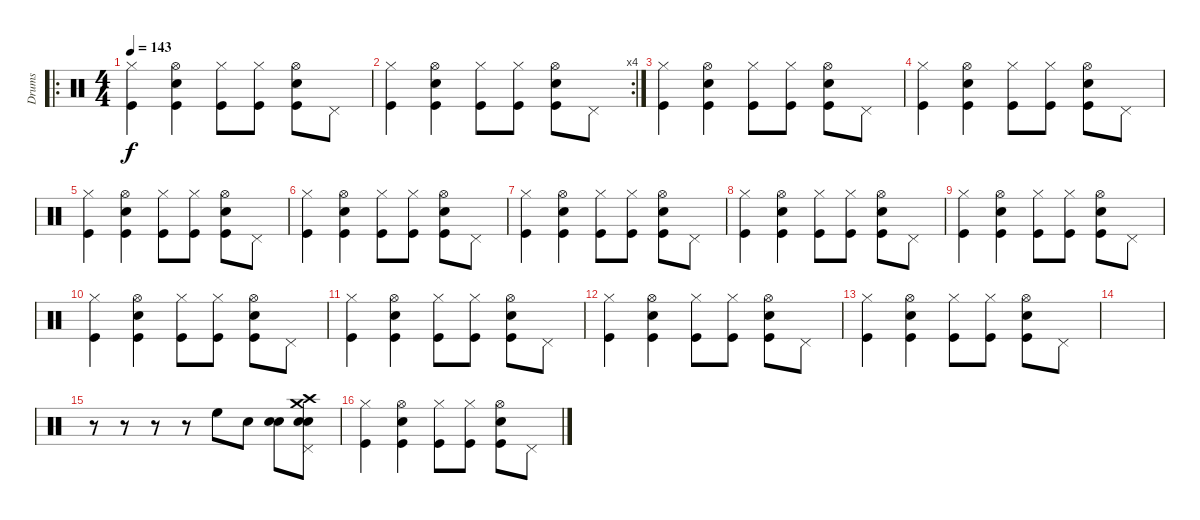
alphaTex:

\track ("Drums" "Drums") {instrument percussion}
\staff {score}
\articulation defaults
\ro
\ts (4 4)
\tempo 143
\clef neutral
\ks c
("Hi-Hat (closed)" "Kick (hit)").4{dy f} ("Snare (hit) 2" "Hi-Hat (open)" "Kick (hit)").4 ("Hi-Hat (closed)" "Kick (hit)").8 ("Hi-Hat (closed)" "Kick (hit)").8 ("Snare (hit) 2" "Hi-Hat (open)" "Kick (hit)").8 "Pedal Hi-Hat (hit)".8 |
\rc 4
("Hi-Hat (closed)" "Kick (hit)").4 ("Snare (hit) 2" "Hi-Hat (open)" "Kick (hit)").4 ("Hi-Hat (closed)" "Kick (hit)").8 ("Hi-Hat (closed)" "Kick (hit)").8 ("Snare (hit) 2" "Hi-Hat (open)" "Kick (hit)").8 "Pedal Hi-Hat (hit)".8 |
("Hi-Hat (closed)" "Kick (hit)").4 ("Snare (hit) 2" "Hi-Hat (open)" "Kick (hit)").4 ("Hi-Hat (closed)" "Kick (hit)").8 ("Hi-Hat (closed)" "Kick (hit)").8 ("Snare (hit) 2" "Hi-Hat (open)" "Kick (hit)").8 "Pedal Hi-Hat (hit)".8 |
("Hi-Hat (closed)" "Kick (hit)").4 ("Snare (hit) 2" "Hi-Hat (open)" "Kick (hit)").4 ("Hi-Hat (closed)" "Kick (hit)").8 ("Hi-Hat (closed)" "Kick (hit)").8 ("Snare (hit) 2" "Hi-Hat (open)" "Kick (hit)").8 "Pedal Hi-Hat (hit)".8 |
("Hi-Hat (closed)" "Kick (hit)").4 ("Snare (hit) 2" "Hi-Hat (open)" "Kick (hit)").4 ("Hi-Hat (closed)" "Kick (hit)").8 ("Hi-Hat (closed)" "Kick (hit)").8 ("Snare (hit) 2" "Hi-Hat (open)" "Kick (hit)").8 "Pedal Hi-Hat (hit)".8 |
("Hi-Hat (closed)" "Kick (hit)").4 ("Snare (hit) 2" "Hi-Hat (open)" "Kick (hit)").4 ("Hi-Hat (closed)" "Kick (hit)").8 ("Hi-Hat (closed)" "Kick (hit)").8 ("Snare (hit) 2" "Hi-Hat (open)" "Kick (hit)").8 "Pedal Hi-Hat (hit)".8 |
("Hi-Hat (closed)" "Kick (hit)").4 ("Snare (hit) 2" "Hi-Hat (open)" "Kick (hit)").4 ("Hi-Hat (closed)" "Kick (hit)").8 ("Hi-Hat (closed)" "Kick (hit)").8 ("Snare (hit) 2" "Hi-Hat (open)" "Kick (hit)").8 "Pedal Hi-Hat (hit)".8 |
("Hi-Hat (closed)" "Kick (hit)").4 ("Snare (hit) 2" "Hi-Hat (open)" "Kick (hit)").4 ("Hi-Hat (closed)" "Kick (hit)").8 ("Hi-Hat (closed)" "Kick (hit)").8 ("Snare (hit) 2" "Hi-Hat (open)" "Kick (hit)").8 "Pedal Hi-Hat (hit)".8 |
("Hi-Hat (closed)" "Kick (hit)").4 ("Snare (hit) 2" "Hi-Hat (open)" "Kick (hit)").4 ("Hi-Hat (closed)" "Kick (hit)").8 ("Hi-Hat (closed)" "Kick (hit)").8 ("Snare (hit) 2" "Hi-Hat (open)" "Kick (hit)").8 "Pedal Hi-Hat (hit)".8 |
("Hi-Hat (closed)" "Kick (hit)").4 ("Snare (hit) 2" "Hi-Hat (open)" "Kick (hit)").4 ("Hi-Hat (closed)" "Kick (hit)").8 ("Hi-Hat (closed)" "Kick (hit)").8 ("Snare (hit) 2" "Hi-Hat (open)" "Kick (hit)").8 "Pedal Hi-Hat (hit)".8 |
("Hi-Hat (closed)" "Kick (hit)").4 ("Snare (hit) 2" "Hi-Hat (open)" "Kick (hit)").4 ("Hi-Hat (closed)" "Kick (hit)").8 ("Hi-Hat (closed)" "Kick (hit)").8 ("Snare (hit) 2" "Hi-Hat (open)" "Kick (hit)").8 "Pedal Hi-Hat (hit)".8 |
("Hi-Hat (closed)" "Kick (hit)").4 ("Snare (hit) 2" "Hi-Hat (open)" "Kick (hit)").4 ("Hi-Hat (closed)" "Kick (hit)").8 ("Hi-Hat (closed)" "Kick (hit)").8 ("Snare (hit) 2" "Hi-Hat (open)" "Kick (hit)").8 "Pedal Hi-Hat (hit)".8 |
("Hi-Hat (closed)" "Kick (hit)").4 ("Snare (hit) 2" "Hi-Hat (open)" "Kick (hit)").4 ("Hi-Hat (closed)" "Kick (hit)").8 ("Hi-Hat (closed)" "Kick (hit)").8 ("Snare (hit) 2" "Hi-Hat (open)" "Kick (hit)").8 "Pedal Hi-Hat (hit)".8 |
|
r.8 r.8 r.8 r.8 "High Floor Tom (hit)".8 "Snare (hit) 2".8 ("Electric Snare (hit)" "Electric Snare (hit)").8 ("Pedal Hi-Hat (hit)" "Electric Snare (hit)" "Snare (hit) 2" "Crash medium (hit)" "Crash high (hit)").8 |
("Hi-Hat (closed)" "Kick (hit)").4 ("Snare (hit) 2" "Hi-Hat (open)" "Kick (hit)").4 ("Hi-Hat (closed)" "Kick (hit)").8 ("Hi-Hat (closed)" "Kick (hit)").8 ("Snare (hit) 2" "Hi-Hat (open)" "Kick (hit)").8 "Pedal Hi-Hat (hit)".8
